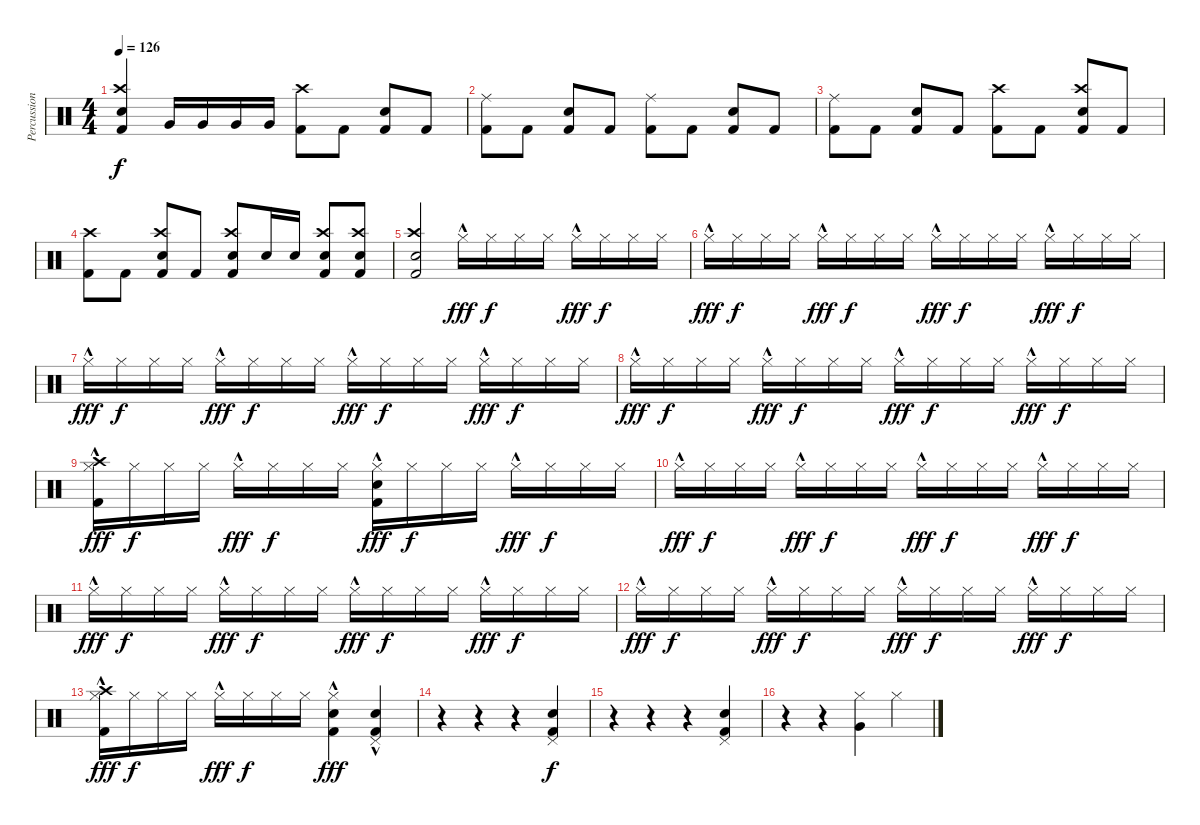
\track ("Percussion" "Percussion") {instrument percussion}
\staff {score}
\articulation defaults
\ts (4 4)
\tempo 126
\clef neutral
\ks c
("Kick (hit) 2" "Crash high (hit)" "Snare (hit) 2").4{dy f} "Very Low Tom (hit)".16 "Very Low Tom (hit)".16 "Very Low Tom (hit)".16 "Very Low Tom (hit)".16 ("Kick (hit) 2" "Crash high (hit)").8 "Kick (hit) 2".8 ("Kick (hit) 2" "Snare (hit) 2").8 "Kick (hit) 2".8 |
("Kick (hit) 2" "Ride (middle)").8 "Kick (hit) 2".8 ("Kick (hit) 2" "Snare (hit) 2").8 "Kick (hit) 2".8 ("Kick (hit) 2" "Ride (middle)").8 "Kick (hit) 2".8 ("Kick (hit) 2" "Snare (hit) 2").8 "Kick (hit) 2".8 |
("Kick (hit) 2" "Ride (middle)").8 "Kick (hit) 2".8 ("Kick (hit) 2" "Snare (hit) 2").8 "Kick (hit) 2".8 ("Kick (hit) 2" "Crash high (hit)").8 "Kick (hit) 2".8 ("Kick (hit) 2" "Snare (hit) 2" "Crash high (hit)").8 "Kick (hit) 2".8 |
("Kick (hit) 2" "Crash high (hit)").8 "Kick (hit) 2".8 ("Kick (hit) 2" "Snare (hit) 2" "Crash high (hit)").8 "Kick (hit) 2".8 ("Kick (hit) 2" "Snare (hit) 2" "Crash high (hit)").8 "Snare (hit) 2".16 "Snare (hit) 2".16 ("Kick (hit) 2" "Snare (hit) 2" "Crash high (hit)").8 ("Kick (hit) 2" "Snare (hit) 2" "Crash high (hit)").8 |
("Kick (hit) 2" "Snare (hit) 2" "Crash high (hit)").2 "Hi-Hat (closed)"{hac}.16{dy fff} "Hi-Hat (closed)".16{dy f} "Hi-Hat (closed)".16 "Hi-Hat (closed)".16 "Hi-Hat (closed)"{hac}.16{dy fff} "Hi-Hat (closed)".16{dy f} "Hi-Hat (closed)".16 "Hi-Hat (closed)".16 |
"Hi-Hat (closed)"{hac}.16{dy fff} "Hi-Hat (closed)".16{dy f} "Hi-Hat (closed)".16 "Hi-Hat (closed)".16 "Hi-Hat (closed)"{hac}.16{dy fff} "Hi-Hat (closed)".16{dy f} "Hi-Hat (closed)".16 "Hi-Hat (closed)".16 "Hi-Hat (closed)"{hac}.16{dy fff} "Hi-Hat (closed)".16{dy f} "Hi-Hat (closed)".16 "Hi-Hat (closed)".16 "Hi-Hat (closed)"{hac}.16{dy fff} "Hi-Hat (closed)".16{dy f} "Hi-Hat (closed)".16 "Hi-Hat (closed)".16 |
"Hi-Hat (closed)"{hac}.16{dy fff} "Hi-Hat (closed)".16{dy f} "Hi-Hat (closed)".16 "Hi-Hat (closed)".16 "Hi-Hat (closed)"{hac}.16{dy fff} "Hi-Hat (closed)".16{dy f} "Hi-Hat (closed)".16 "Hi-Hat (closed)".16 "Hi-Hat (closed)"{hac}.16{dy fff} "Hi-Hat (closed)".16{dy f} "Hi-Hat (closed)".16 "Hi-Hat (closed)".16 "Hi-Hat (closed)"{hac}.16{dy fff} "Hi-Hat (closed)".16{dy f} "Hi-Hat (closed)".16 "Hi-Hat (closed)".16 |
"Hi-Hat (closed)"{hac}.16{dy fff} "Hi-Hat (closed)".16{dy f} "Hi-Hat (closed)".16 "Hi-Hat (closed)".16 "Hi-Hat (closed)"{hac}.16{dy fff} "Hi-Hat (closed)".16{dy f} "Hi-Hat (closed)".16 "Hi-Hat (closed)".16 "Hi-Hat (closed)"{hac}.16{dy fff} "Hi-Hat (closed)".16{dy f} "Hi-Hat (closed)".16 "Hi-Hat (closed)".16 "Hi-Hat (closed)"{hac}.16{dy fff} "Hi-Hat (closed)".16{dy f} "Hi-Hat (closed)".16 "Hi-Hat (closed)".16 |
("Hi-Hat (closed)"{hac} "Crash high (hit)" "Kick (hit) 2").16{dy fff} "Hi-Hat (closed)".16{dy f} "Hi-Hat (closed)".16 "Hi-Hat (closed)".16 "Hi-Hat (closed)"{hac}.16{dy fff} "Hi-Hat (closed)".16{dy f} "Hi-Hat (closed)".16 "Hi-Hat (closed)".16 ("Hi-Hat (closed)"{hac} "Snare (hit) 2" "Kick (hit) 2").16{dy fff} "Hi-Hat (closed)".16{dy f} "Hi-Hat (closed)".16 "Hi-Hat (closed)".16 "Hi-Hat (closed)"{hac}.16{dy fff} "Hi-Hat (closed)".16{dy f} "Hi-Hat (closed)".16 "Hi-Hat (closed)".16 |
"Hi-Hat (closed)"{hac}.16{dy fff} "Hi-Hat (closed)".16{dy f} "Hi-Hat (closed)".16 "Hi-Hat (closed)".16 "Hi-Hat (closed)"{hac}.16{dy fff} "Hi-Hat (closed)".16{dy f} "Hi-Hat (closed)".16 "Hi-Hat (closed)".16 "Hi-Hat (closed)"{hac}.16{dy fff} "Hi-Hat (closed)".16{dy f} "Hi-Hat (closed)".16 "Hi-Hat (closed)".16 "Hi-Hat (closed)"{hac}.16{dy fff} "Hi-Hat (closed)".16{dy f} "Hi-Hat (closed)".16 "Hi-Hat (closed)".16 |
"Hi-Hat (closed)"{hac}.16{dy fff} "Hi-Hat (closed)".16{dy f} "Hi-Hat (closed)".16 "Hi-Hat (closed)".16 "Hi-Hat (closed)"{hac}.16{dy fff} "Hi-Hat (closed)".16{dy f} "Hi-Hat (closed)".16 "Hi-Hat (closed)".16 "Hi-Hat (closed)"{hac}.16{dy fff} "Hi-Hat (closed)".16{dy f} "Hi-Hat (closed)".16 "Hi-Hat (closed)".16 "Hi-Hat (closed)"{hac}.16{dy fff} "Hi-Hat (closed)".16{dy f} "Hi-Hat (closed)".16 "Hi-Hat (closed)".16 |
"Hi-Hat (closed)"{hac}.16{dy fff} "Hi-Hat (closed)".16{dy f} "Hi-Hat (closed)".16 "Hi-Hat (closed)".16 "Hi-Hat (closed)"{hac}.16{dy fff} "Hi-Hat (closed)".16{dy f} "Hi-Hat (closed)".16 "Hi-Hat (closed)".16 "Hi-Hat (closed)"{hac}.16{dy fff} "Hi-Hat (closed)".16{dy f} "Hi-Hat (closed)".16 "Hi-Hat (closed)".16 "Hi-Hat (closed)"{hac}.16{dy fff} "Hi-Hat (closed)".16{dy f} "Hi-Hat (closed)".16 "Hi-Hat (closed)".16 |
("Hi-Hat (closed)"{hac} "Crash high (hit)" "Kick (hit) 2").16{dy fff} "Hi-Hat (closed)".16{dy f} "Hi-Hat (closed)".16 "Hi-Hat (closed)".16 "Hi-Hat (closed)"{hac}.16{dy fff} "Hi-Hat (closed)".16{dy f} "Hi-Hat (closed)".16 "Hi-Hat (closed)".16 ("Hi-Hat (closed)"{hac} "Snare (hit) 2" "Kick (hit) 2").4{dy fff} ("Kick (hit) 2"{hac} "Snare (hit) 2" "Pedal Hi-Hat (hit)").4 |
r.4 r.4 r.4 ("Kick (hit) 2" "Snare (hit) 2" "Pedal Hi-Hat (hit)").4{dy f} |
r.4 r.4 r.4 ("Kick (hit) 2" "Snare (hit) 2" "Pedal Hi-Hat (hit)").4 |
r.4 r.4 ("Hi-Hat (closed)" "Very Low Tom (hit)").4 "Hi-Hat (closed)".4
